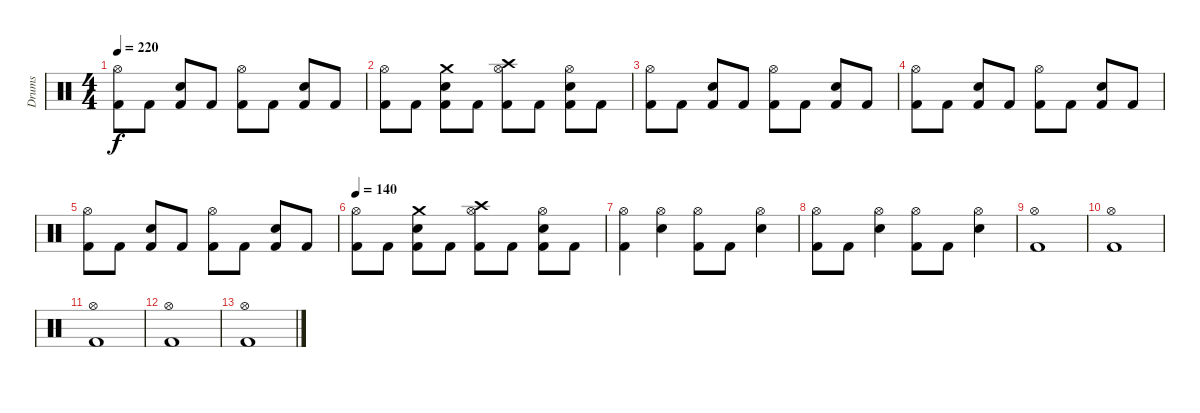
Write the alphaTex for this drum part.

\track ("Drums" "Drums") {instrument percussion}
\staff {score}
\articulation defaults
\ts (4 4)
\tempo 220
\clef neutral
\ks c
("Hi-Hat (open)" "Kick (hit) 2").8{dy f} "Kick (hit) 2".8 ("Electric Snare (hit)" "Kick (hit) 2").8 "Kick (hit) 2".8 ("Hi-Hat (open)" "Kick (hit) 2").8 "Kick (hit) 2".8 ("Electric Snare (hit)" "Kick (hit) 2").8 "Kick (hit) 2".8 |
("Hi-Hat (open)" "Kick (hit) 2").8 "Kick (hit) 2".8 ("Crash medium (hit)" "Electric Snare (hit)" "Kick (hit) 2").8 "Kick (hit) 2".8 ("Crash high (hit)" "Hi-Hat (open)" "Kick (hit) 2").8 "Kick (hit) 2".8 ("Hi-Hat (open)" "Electric Snare (hit)" "Kick (hit) 2").8 "Kick (hit) 2".8 |
("Hi-Hat (open)" "Kick (hit) 2").8 "Kick (hit) 2".8 ("Electric Snare (hit)" "Kick (hit) 2").8 "Kick (hit) 2".8 ("Hi-Hat (open)" "Kick (hit) 2").8 "Kick (hit) 2".8 ("Electric Snare (hit)" "Kick (hit) 2").8 "Kick (hit) 2".8 |
("Hi-Hat (open)" "Kick (hit) 2").8 "Kick (hit) 2".8 ("Electric Snare (hit)" "Kick (hit) 2").8 "Kick (hit) 2".8 ("Hi-Hat (open)" "Kick (hit) 2").8 "Kick (hit) 2".8 ("Electric Snare (hit)" "Kick (hit) 2").8 "Kick (hit) 2".8 |
("Hi-Hat (open)" "Kick (hit) 2").8 "Kick (hit) 2".8 ("Electric Snare (hit)" "Kick (hit) 2").8 "Kick (hit) 2".8 ("Hi-Hat (open)" "Kick (hit) 2").8 "Kick (hit) 2".8 ("Electric Snare (hit)" "Kick (hit) 2").8 "Kick (hit) 2".8 |
\tempo 140
("Hi-Hat (open)" "Kick (hit) 2").8 "Kick (hit) 2".8 ("Crash medium (hit)" "Electric Snare (hit)" "Kick (hit) 2").8 "Kick (hit) 2".8 ("Crash high (hit)" "Hi-Hat (open)" "Kick (hit) 2").8 "Kick (hit) 2".8 ("Hi-Hat (open)" "Electric Snare (hit)" "Kick (hit) 2").8 "Kick (hit) 2".8 |
("Hi-Hat (open)" "Kick (hit) 2").4 ("Electric Snare (hit)" "Hi-Hat (open)").4 ("Hi-Hat (open)" "Kick (hit) 2").8 "Kick (hit) 2".8 ("Hi-Hat (open)" "Electric Snare (hit)").4 |
("Hi-Hat (open)" "Kick (hit) 2").8 "Kick (hit) 2".8 ("Hi-Hat (open)" "Electric Snare (hit)").4 ("Hi-Hat (open)" "Kick (hit) 2").8 "Kick (hit) 2".8 ("Hi-Hat (open)" "Electric Snare (hit)").4 |
("Hi-Hat (open)" "Kick (hit) 2").1 |
("Hi-Hat (open)" "Kick (hit) 2").1 |
("Hi-Hat (open)" "Kick (hit) 2").1 |
("Hi-Hat (open)" "Kick (hit) 2").1 |
("Hi-Hat (open)" "Kick (hit) 2").1
